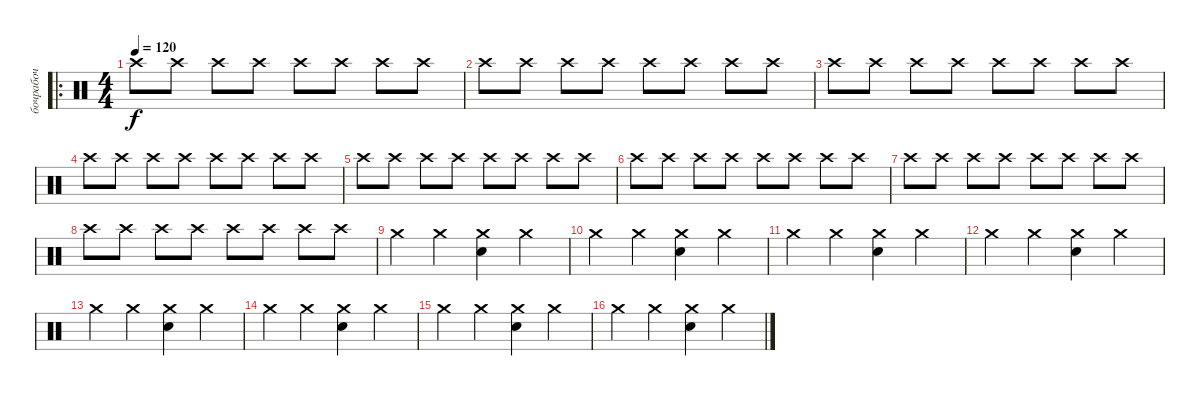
\track ("бочрабоч" "бочрабоч") {instrument percussion}
\staff {score}
\articulation defaults
\ro
\ts (4 4)
\tempo 120
\clef neutral
\ks c "Crash high (hit)".8{dy f} "Crash high (hit)".8 "Crash high (hit)".8 "Crash high (hit)".8 "Crash high (hit)".8 "Crash high (hit)".8 "Crash high (hit)".8 "Crash high (hit)".8
|
"Crash high (hit)".8 "Crash high (hit)".8 "Crash high (hit)".8 "Crash high (hit)".8 "Crash high (hit)".8 "Crash high (hit)".8 "Crash high (hit)".8 "Crash high (hit)".8 |
"Crash high (hit)".8 "Crash high (hit)".8 "Crash high (hit)".8 "Crash high (hit)".8 "Crash high (hit)".8 "Crash high (hit)".8 "Crash high (hit)".8 "Crash high (hit)".8 |
"Crash high (hit)".8 "Crash high (hit)".8 "Crash high (hit)".8 "Crash high (hit)".8 "Crash high (hit)".8 "Crash high (hit)".8 "Crash high (hit)".8 "Crash high (hit)".8 |
"Crash high (hit)".8 "Crash high (hit)".8 "Crash high (hit)".8 "Crash high (hit)".8 "Crash high (hit)".8 "Crash high (hit)".8 "Crash high (hit)".8 "Crash high (hit)".8 |
"Crash high (hit)".8 "Crash high (hit)".8 "Crash high (hit)".8 "Crash high (hit)".8 "Crash high (hit)".8 "Crash high (hit)".8 "Crash high (hit)".8 "Crash high (hit)".8 |
"Crash high (hit)".8 "Crash high (hit)".8 "Crash high (hit)".8 "Crash high (hit)".8 "Crash high (hit)".8 "Crash high (hit)".8 "Crash high (hit)".8 "Crash high (hit)".8 |
"Crash high (hit)".8 "Crash high (hit)".8 "Crash high (hit)".8 "Crash high (hit)".8 "Crash high (hit)".8 "Crash high (hit)".8 "Crash high (hit)".8 "Crash high (hit)".8 |
"Crash medium (hit)".4 "Crash medium (hit)".4 ("Crash medium (hit)" "Snare (hit) 2").4 "Crash medium (hit)".4 |
"Crash medium (hit)".4 "Crash medium (hit)".4 ("Crash medium (hit)" "Snare (hit) 2").4 "Crash medium (hit)".4 |
"Crash medium (hit)".4 "Crash medium (hit)".4 ("Crash medium (hit)" "Snare (hit) 2").4 "Crash medium (hit)".4 |
"Crash medium (hit)".4 "Crash medium (hit)".4 ("Crash medium (hit)" "Snare (hit) 2").4 "Crash medium (hit)".4 |
"Crash medium (hit)".4 "Crash medium (hit)".4 ("Crash medium (hit)" "Snare (hit) 2").4 "Crash medium (hit)".4 |
"Crash medium (hit)".4 "Crash medium (hit)".4 ("Crash medium (hit)" "Snare (hit) 2").4 "Crash medium (hit)".4 |
"Crash medium (hit)".4 "Crash medium (hit)".4 ("Crash medium (hit)" "Snare (hit) 2").4 "Crash medium (hit)".4 |
"Crash medium (hit)".4 "Crash medium (hit)".4 ("Crash medium (hit)" "Snare (hit) 2").4 "Crash medium (hit)".4
